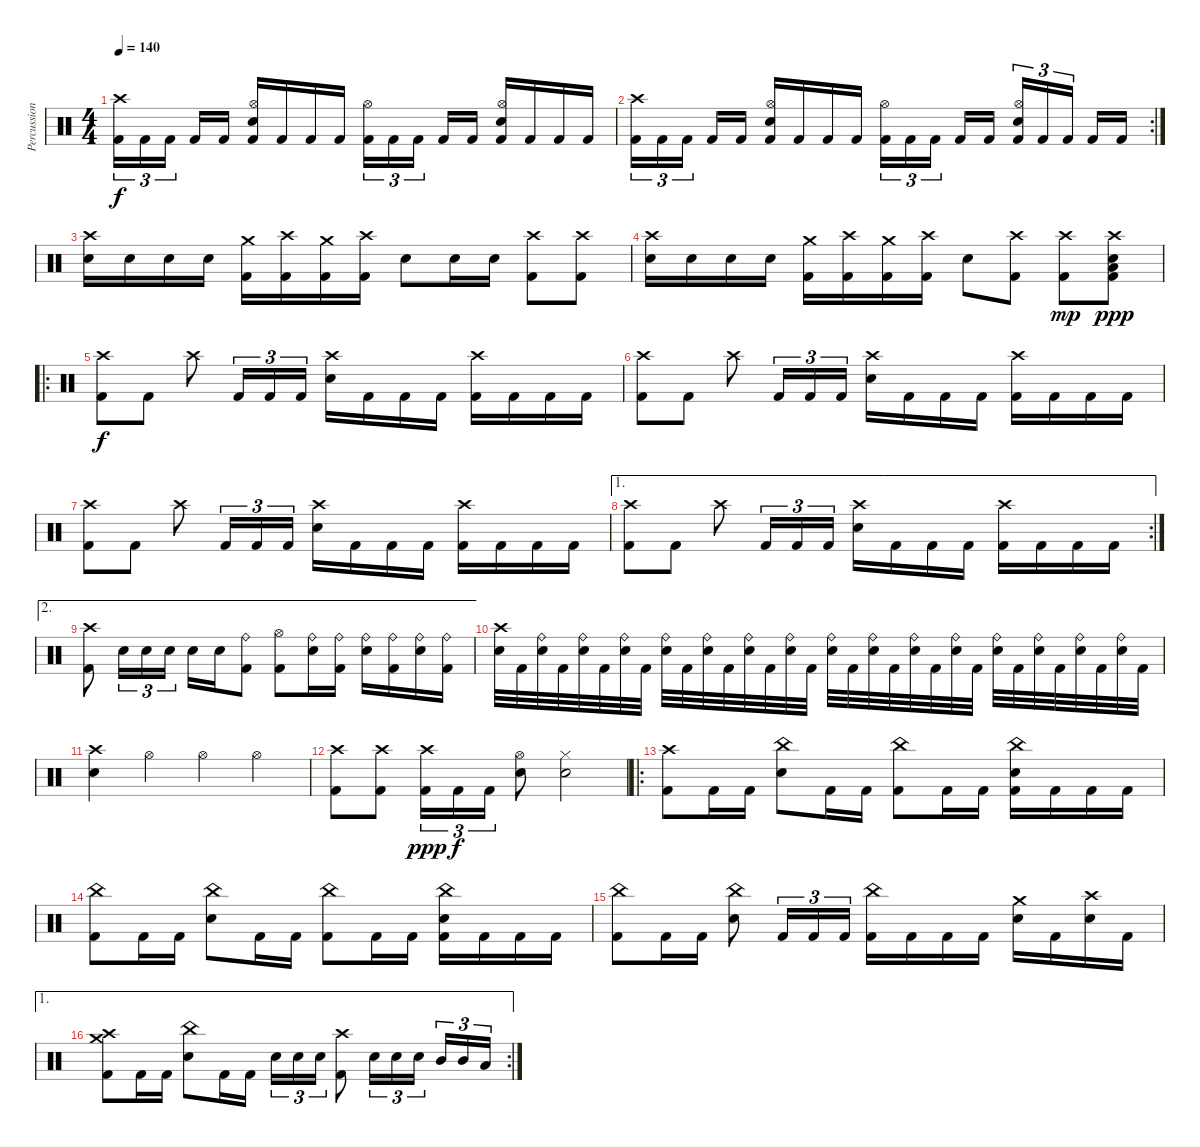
\track ("Percussions" "Percussion") {instrument percussion}
\staff {score}
\articulation defaults
\ts (4 4)
\tempo 140
\clef neutral
\ks c
("Crash high (hit)" "Kick (hit) 2").16{tu (3 2) dy f} "Kick (hit) 2".16{tu (3 2)} "Kick (hit) 2".16{tu (3 2)} "Kick (hit) 2".16 "Kick (hit) 2".16 ("Hi-Hat (open)" "Snare (hit) 2" "Kick (hit) 2").16 "Kick (hit) 2".16 "Kick (hit) 2".16 "Kick (hit) 2".16 ("Hi-Hat (open)" "Kick (hit) 2").16{tu (3 2)} "Kick (hit) 2".16{tu (3 2)} "Kick (hit) 2".16{tu (3 2)} "Kick (hit) 2".16 "Kick (hit) 2".16 ("Hi-Hat (open)" "Snare (hit) 2" "Kick (hit) 2").16 "Kick (hit) 2".16 "Kick (hit) 2".16 "Kick (hit) 2".16 |
\rc 2
("Crash high (hit)" "Kick (hit) 2").16{tu (3 2)} "Kick (hit) 2".16{tu (3 2)} "Kick (hit) 2".16{tu (3 2)} "Kick (hit) 2".16 "Kick (hit) 2".16 ("Hi-Hat (open)" "Snare (hit) 2" "Kick (hit) 2").16 "Kick (hit) 2".16 "Kick (hit) 2".16 "Kick (hit) 2".16 ("Hi-Hat (open)" "Kick (hit) 2").16{tu (3 2)} "Kick (hit) 2".16{tu (3 2)} "Kick (hit) 2".16{tu (3 2)} "Kick (hit) 2".16 "Kick (hit) 2".16 ("Hi-Hat (open)" "Snare (hit) 2" "Kick (hit) 2").16{tu (3 2)} "Kick (hit) 2".16{tu (3 2)} "Kick (hit) 2".16{tu (3 2)} "Kick (hit) 2".16 "Kick (hit) 2".16 |
("Crash high (hit)" "Snare (hit) 2").16 "Snare (hit) 2".16 "Snare (hit) 2".16 "Snare (hit) 2".16 ("Crash medium (hit)" "Kick (hit) 2").16 ("Crash high (hit)" "Kick (hit) 2").16 ("Crash medium (hit)" "Kick (hit) 2").16 ("Crash high (hit)" "Kick (hit) 2").16 "Snare (hit) 2".8 "Snare (hit) 2".16 "Snare (hit) 2".16 ("Crash high (hit)" "Kick (hit) 2").8 ("Crash high (hit)" "Kick (hit) 2").8 |
("Crash high (hit)" "Snare (hit) 2").16 "Snare (hit) 2".16 "Snare (hit) 2".16 "Snare (hit) 2".16 ("Crash medium (hit)" "Kick (hit) 2").16 ("Crash high (hit)" "Kick (hit) 2").16 ("Crash medium (hit)" "Kick (hit) 2").16 ("Crash high (hit)" "Kick (hit) 2").16 "Snare (hit) 2".8 ("Crash high (hit)" "Kick (hit) 2").8 ("Crash high (hit)" "Kick (hit) 2").8{dy mp} ("Crash high (hit)" "Low Floor Tom (hit)" "Snare (hit) 2" "Kick (hit) 2").8{dy ppp} |
\ro
("Crash high (hit)" "Kick (hit) 2").8{dy f} "Kick (hit) 2".8 "Crash high (hit)".8 "Kick (hit) 2".16{tu (3 2)} "Kick (hit) 2".16{tu (3 2)} "Kick (hit) 2".16{tu (3 2)} ("Crash high (hit)" "Snare (hit) 2").16 "Kick (hit) 2".16 "Kick (hit) 2".16 "Kick (hit) 2".16 ("Crash high (hit)" "Kick (hit) 2").16 "Kick (hit) 2".16 "Kick (hit) 2".16 "Kick (hit) 2".16 |
("Crash high (hit)" "Kick (hit) 2").8 "Kick (hit) 2".8 "Crash high (hit)".8 "Kick (hit) 2".16{tu (3 2)} "Kick (hit) 2".16{tu (3 2)} "Kick (hit) 2".16{tu (3 2)} ("Crash high (hit)" "Snare (hit) 2").16 "Kick (hit) 2".16 "Kick (hit) 2".16 "Kick (hit) 2".16 ("Crash high (hit)" "Kick (hit) 2").16 "Kick (hit) 2".16 "Kick (hit) 2".16 "Kick (hit) 2".16 |
("Crash high (hit)" "Kick (hit) 2").8 "Kick (hit) 2".8 "Crash high (hit)".8 "Kick (hit) 2".16{tu (3 2)} "Kick (hit) 2".16{tu (3 2)} "Kick (hit) 2".16{tu (3 2)} ("Crash high (hit)" "Snare (hit) 2").16 "Kick (hit) 2".16 "Kick (hit) 2".16 "Kick (hit) 2".16 ("Crash high (hit)" "Kick (hit) 2").16 "Kick (hit) 2".16 "Kick (hit) 2".16 "Kick (hit) 2".16 |
\ae 1
\rc 2
("Crash high (hit)" "Kick (hit) 2").8 "Kick (hit) 2".8 "Crash high (hit)".8 "Kick (hit) 2".16{tu (3 2)} "Kick (hit) 2".16{tu (3 2)} "Kick (hit) 2".16{tu (3 2)} ("Crash high (hit)" "Snare (hit) 2").16 "Kick (hit) 2".16 "Kick (hit) 2".16 "Kick (hit) 2".16 ("Crash high (hit)" "Kick (hit) 2").16 "Kick (hit) 2".16 "Kick (hit) 2".16 "Kick (hit) 2".16 |
\ae 2
("Crash high (hit)" "Kick (hit) 2").8 "Snare (hit) 2".16{tu (3 2)} "Snare (hit) 2".16{tu (3 2)} "Snare (hit) 2".16{tu (3 2)} "Snare (hit) 2".16 "Snare (hit) 2".16 ("Ride (bell)" "Kick (hit) 2").8 ("Hi-Hat (open)" "Kick (hit) 2").8 ("Ride (bell)" "Snare (hit) 2").16 ("Ride (bell)" "Kick (hit) 2").16 ("Ride (bell)" "Snare (hit) 2").16 ("Ride (bell)" "Kick (hit) 2").16 ("Ride (bell)" "Snare (hit) 2").16 ("Ride (bell)" "Kick (hit) 2").16 |
("Crash high (hit)" "Snare (hit) 2").32 "Kick (hit) 2".32 ("Ride (bell)" "Snare (hit) 2").32 "Kick (hit) 2".32 ("Ride (bell)" "Snare (hit) 2").32 "Kick (hit) 2".32 ("Ride (bell)" "Snare (hit) 2").32 "Kick (hit) 2".32 ("Ride (bell)" "Snare (hit) 2").32 "Kick (hit) 2".32 ("Ride (bell)" "Snare (hit) 2").32 "Kick (hit) 2".32 ("Ride (bell)" "Snare (hit) 2").32 "Kick (hit) 2".32 ("Ride (bell)" "Snare (hit) 2").32 "Kick (hit) 2".32 ("Ride (bell)" "Snare (hit) 2").32 "Kick (hit) 2".32 ("Ride (bell)" "Snare (hit) 2").32 "Kick (hit) 2".32 ("Ride (bell)" "Snare (hit) 2").32 "Kick (hit) 2".32 ("Ride (bell)" "Snare (hit) 2").32 "Kick (hit) 2".32 ("Ride (bell)" "Snare (hit) 2").32 "Kick (hit) 2".32 ("Ride (bell)" "Snare (hit) 2").32 "Kick (hit) 2".32 ("Ride (bell)" "Snare (hit) 2").32 "Kick (hit) 2".32 ("Ride (bell)" "Snare (hit) 2").32 "Kick (hit) 2".32 |
("Crash high (hit)" "Snare (hit) 2").4 "Hi-Hat (open)".4 "Hi-Hat (open)".4 "Hi-Hat (open)".4 |
("Crash high (hit)" "Kick (hit) 2").8 ("Crash high (hit)" "Kick (hit) 2").8 ("Crash high (hit)" "Kick (hit) 2").16{tu (3 2) dy ppp} "Kick (hit) 2".16{tu (3 2) dy f} "Kick (hit) 2".16{tu (3 2)} ("Hi-Hat (open)" "Snare (hit) 2").8 ("Hi-Hat (closed)" "Snare (hit) 2").2 |
\ro
("Crash high (hit)" "Kick (hit) 2").8 "Kick (hit) 2".16 "Kick (hit) 2".16 ("China (hit)" "Snare (hit) 2").8 "Kick (hit) 2".16 "Kick (hit) 2".16 ("China (hit)" "Kick (hit) 2").8 "Kick (hit) 2".16 "Kick (hit) 2".16 ("China (hit)" "Snare (hit) 2" "Kick (hit) 2").16 "Kick (hit) 2".16 "Kick (hit) 2".16 "Kick (hit) 2".16 |
("China (hit)" "Kick (hit) 2").8 "Kick (hit) 2".16 "Kick (hit) 2".16 ("China (hit)" "Snare (hit) 2").8 "Kick (hit) 2".16 "Kick (hit) 2".16 ("China (hit)" "Kick (hit) 2").8 "Kick (hit) 2".16 "Kick (hit) 2".16 ("China (hit)" "Snare (hit) 2" "Kick (hit) 2").16 "Kick (hit) 2".16 "Kick (hit) 2".16 "Kick (hit) 2".16 |
("China (hit)" "Kick (hit) 2").8 "Kick (hit) 2".16 "Kick (hit) 2".16 ("China (hit)" "Snare (hit) 2").8 "Kick (hit) 2".16{tu (3 2)} "Kick (hit) 2".16{tu (3 2)} "Kick (hit) 2".16{tu (3 2)} ("China (hit)" "Kick (hit) 2").16 "Kick (hit) 2".16 "Kick (hit) 2".16 "Kick (hit) 2".16 ("Crash medium (hit)" "Snare (hit) 2").16 "Kick (hit) 2".16 ("Crash high (hit)" "Snare (hit) 2").16 "Kick (hit) 2".16 |
\ae 1
\rc 2
("Crash medium (hit)" "Crash high (hit)" "Kick (hit) 2").8 "Kick (hit) 2".16 "Kick (hit) 2".16 ("China (hit)" "Snare (hit) 2").8 "Kick (hit) 2".16 "Kick (hit) 2".16 "Snare (hit) 2".16{tu (3 2)} "Snare (hit) 2".16{tu (3 2)} "Snare (hit) 2".16{tu (3 2)} ("Crash high (hit)" "Kick (hit) 2").8 "Snare (hit) 2".16{tu (3 2)} "Snare (hit) 2".16{tu (3 2)} "Snare (hit) 2".16{tu (3 2)} "Mid Tom (hit)".16{tu (3 2)} "Mid Tom (hit)".16{tu (3 2)} "Low Tom (hit)".16{tu (3 2)}
